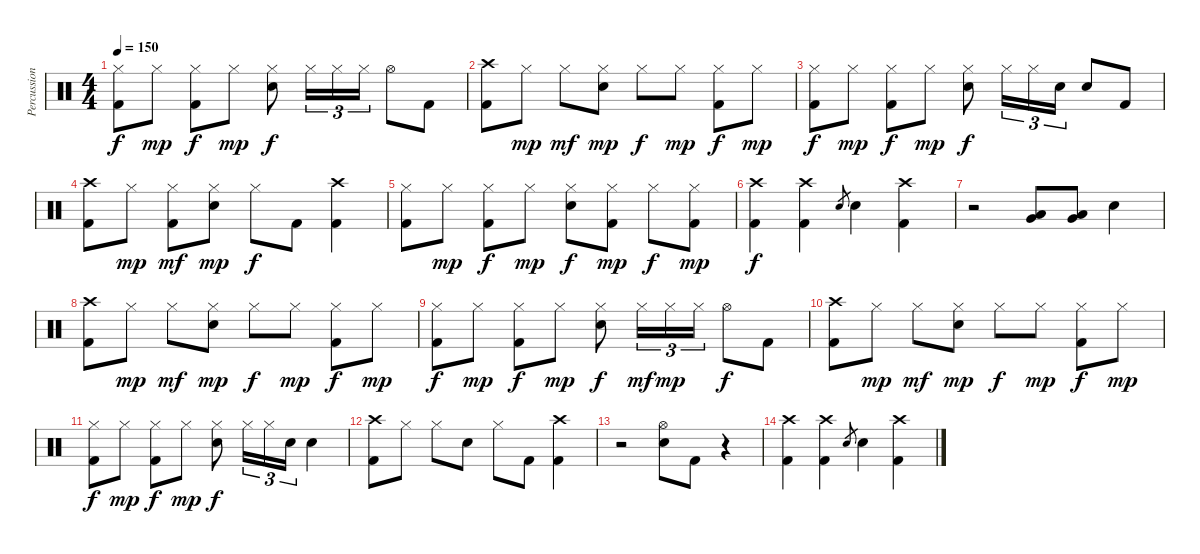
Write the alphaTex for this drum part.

\track ("Percussion" "Percussion") {instrument percussion}
\staff {score}
\articulation defaults
\ts (4 4)
\tempo 150
\clef neutral
\ks c
("Hi-Hat (closed)" "Kick (hit) 2").8{dy f} "Hi-Hat (closed)".8{dy mp} ("Hi-Hat (closed)" "Kick (hit) 2").8{dy f} "Hi-Hat (closed)".8{dy mp} ("Hi-Hat (closed)" "Snare (hit) 2").8{dy f} "Hi-Hat (closed)".16{tu (3 2)} "Hi-Hat (closed)".16{tu (3 2)} "Hi-Hat (closed)".16{tu (3 2)} "Hi-Hat (open)".8 "Kick (hit) 2".8 |
("Crash high (hit)" "Kick (hit) 2").8 "Hi-Hat (closed)".8{dy mp} "Hi-Hat (closed)".8{dy mf} ("Hi-Hat (closed)" "Snare (hit) 2").8{dy mp} "Hi-Hat (closed)".8{dy f} "Hi-Hat (closed)".8{dy mp} ("Hi-Hat (closed)" "Kick (hit) 2").8{dy f} "Hi-Hat (closed)".8{dy mp} |
("Hi-Hat (closed)" "Kick (hit) 2").8{dy f} "Hi-Hat (closed)".8{dy mp} ("Hi-Hat (closed)" "Kick (hit) 2").8{dy f} "Hi-Hat (closed)".8{dy mp} ("Hi-Hat (closed)" "Snare (hit) 2").8{dy f} "Hi-Hat (closed)".16{tu (3 2)} "Hi-Hat (closed)".16{tu (3 2)} "Snare (hit) 2".16{tu (3 2)} "Snare (hit) 2".8 "Kick (hit) 2".8 |
("Crash high (hit)" "Kick (hit) 2").8 "Hi-Hat (closed)".8{dy mp} ("Hi-Hat (closed)" "Kick (hit) 2").8{dy mf} ("Hi-Hat (closed)" "Snare (hit) 2").8{dy mp} "Hi-Hat (closed)".8{dy f} "Kick (hit) 2".8 ("Crash high (hit)" "Kick (hit) 2").4 |
("Hi-Hat (closed)" "Kick (hit) 2").8 "Hi-Hat (closed)".8{dy mp} ("Hi-Hat (closed)" "Kick (hit) 2").8{dy f} "Hi-Hat (closed)".8{dy mp} ("Hi-Hat (closed)" "Snare (hit) 2").8{dy f} ("Hi-Hat (closed)" "Kick (hit) 2").8{dy mp} "Hi-Hat (closed)".8{dy f} ("Hi-Hat (closed)" "Kick (hit) 2").8{dy mp} |
("Crash high (hit)" "Kick (hit) 2").4{dy f} ("Crash high (hit)" "Kick (hit) 2").4 "Snare (hit) 2".8{gr} "Snare (hit) 2".4 ("Crash high (hit)" "Kick (hit) 2").4 |
r.2 ("Low Tom (hit)" "Very Low Tom (hit)").8 ("Low Tom (hit)" "Very Low Tom (hit)").8 "Snare (hit) 2".4 |
("Crash high (hit)" "Kick (hit) 2").8 "Hi-Hat (closed)".8{dy mp} "Hi-Hat (closed)".8{dy mf} ("Hi-Hat (closed)" "Snare (hit) 2").8{dy mp} "Hi-Hat (closed)".8{dy f} "Hi-Hat (closed)".8{dy mp} ("Hi-Hat (closed)" "Kick (hit) 2").8{dy f} "Hi-Hat (closed)".8{dy mp} |
("Hi-Hat (closed)" "Kick (hit) 2").8{dy f} "Hi-Hat (closed)".8{dy mp} ("Hi-Hat (closed)" "Kick (hit) 2").8{dy f} "Hi-Hat (closed)".8{dy mp} ("Hi-Hat (closed)" "Snare (hit) 2").8{dy f} "Hi-Hat (closed)".16{tu (3 2) dy mf} "Hi-Hat (closed)".16{tu (3 2) dy mp} "Hi-Hat (closed)".16{tu (3 2)} "Hi-Hat (open)".8{dy f} "Kick (hit) 2".8 |
("Crash high (hit)" "Kick (hit) 2").8 "Hi-Hat (closed)".8{dy mp} "Hi-Hat (closed)".8{dy mf} ("Hi-Hat (closed)" "Snare (hit) 2").8{dy mp} "Hi-Hat (closed)".8{dy f} "Hi-Hat (closed)".8{dy mp} ("Hi-Hat (closed)" "Kick (hit) 2").8{dy f} "Hi-Hat (closed)".8{dy mp} |
("Hi-Hat (closed)" "Kick (hit) 2").8{dy f} "Hi-Hat (closed)".8{dy mp} ("Hi-Hat (closed)" "Kick (hit) 2").8{dy f} "Hi-Hat (closed)".8{dy mp} ("Hi-Hat (closed)" "Snare (hit) 2").8{dy f} "Hi-Hat (closed)".16{tu (3 2)} "Hi-Hat (closed)".16{tu (3 2)} "Snare (hit) 2".16{tu (3 2)} "Snare (hit) 2".4 |
("Crash high (hit)" "Kick (hit) 2").8 "Hi-Hat (closed)".8 "Hi-Hat (closed)".8 "Snare (hit) 2".8 "Hi-Hat (closed)".8 "Kick (hit) 2".8 ("Crash high (hit)" "Kick (hit) 2").4 |
r.2 ("Hi-Hat (open)" "Snare (hit) 2").8 "Kick (hit) 2".8 r.4 |
("Crash high (hit)" "Kick (hit) 2").4 ("Crash high (hit)" "Kick (hit) 2").4 "Snare (hit) 2".8{gr} "Snare (hit) 2".4 ("Crash high (hit)" "Kick (hit) 2").4
